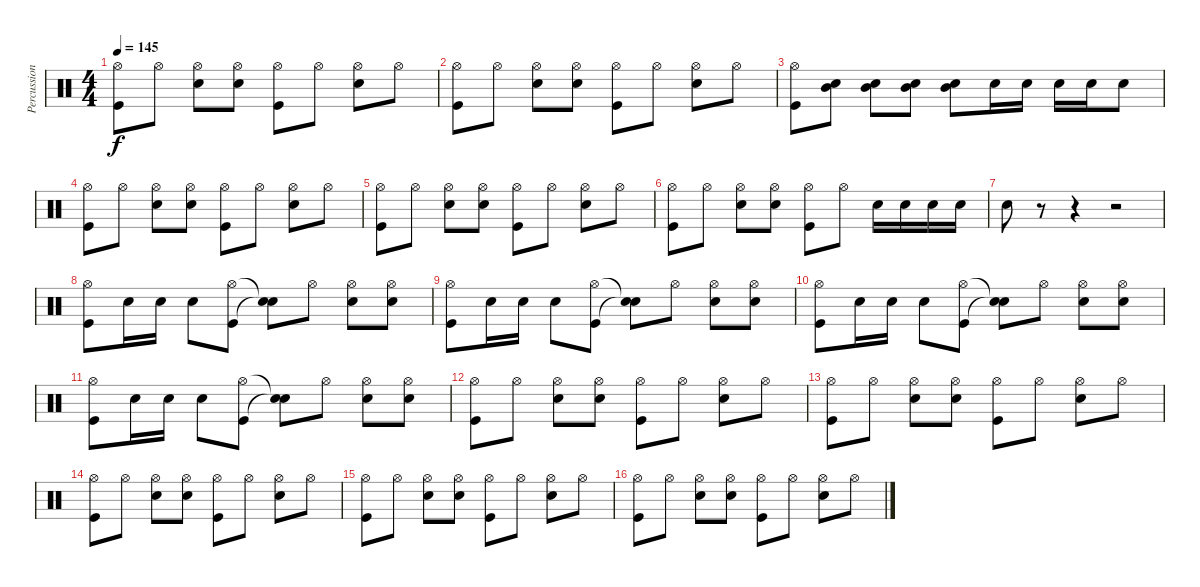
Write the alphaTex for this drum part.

\track ("Percussion" "Percussion") {instrument percussion}
\staff {score}
\articulation defaults
\ts (4 4)
\tempo 145
\clef neutral
\ks c
("Hi-Hat (open)" "Kick (hit)").8{dy f} "Hi-Hat (open)".8 ("Hi-Hat (open)" "Snare (hit) 2").8 ("Hi-Hat (open)" "Snare (hit) 2").8 ("Hi-Hat (open)" "Kick (hit)").8 "Hi-Hat (open)".8 ("Hi-Hat (open)" "Snare (hit) 2").8 "Hi-Hat (open)".8 |
("Hi-Hat (open)" "Kick (hit)").8 "Hi-Hat (open)".8 ("Hi-Hat (open)" "Snare (hit) 2").8 ("Hi-Hat (open)" "Snare (hit) 2").8 ("Hi-Hat (open)" "Kick (hit)").8 "Hi-Hat (open)".8 ("Hi-Hat (open)" "Snare (hit) 2").8 "Hi-Hat (open)".8 |
("Hi-Hat (open)" "Kick (hit)").8 ("Snare (hit) 2" "Mid Tom (hit)").8 ("Snare (hit) 2" "Mid Tom (hit)").8 ("Snare (hit) 2" "Mid Tom (hit)").8 ("Snare (hit) 2" "Mid Tom (hit)").8 "Snare (hit) 2".16 "Snare (hit) 2".16 "Snare (hit) 2".16 "Snare (hit) 2".16 "Snare (hit) 2".8 |
("Hi-Hat (open)" "Kick (hit)").8 "Hi-Hat (open)".8 ("Hi-Hat (open)" "Snare (hit) 2").8 ("Hi-Hat (open)" "Snare (hit) 2").8 ("Hi-Hat (open)" "Kick (hit)").8 "Hi-Hat (open)".8 ("Hi-Hat (open)" "Snare (hit) 2").8 "Hi-Hat (open)".8 |
("Hi-Hat (open)" "Kick (hit)").8 "Hi-Hat (open)".8 ("Hi-Hat (open)" "Snare (hit) 2").8 ("Hi-Hat (open)" "Snare (hit) 2").8 ("Hi-Hat (open)" "Kick (hit)").8 "Hi-Hat (open)".8 ("Hi-Hat (open)" "Snare (hit) 2").8 "Hi-Hat (open)".8 |
("Hi-Hat (open)" "Kick (hit)").8 "Hi-Hat (open)".8 ("Hi-Hat (open)" "Snare (hit) 2").8 ("Hi-Hat (open)" "Snare (hit) 2").8 ("Hi-Hat (open)" "Kick (hit)").8 "Hi-Hat (open)".8 "Snare (hit) 2".16 "Snare (hit) 2".16 "Snare (hit) 2".16 "Snare (hit) 2".16 |
"Snare (hit) 2".8 r.8 r.4 r.2 |
("Hi-Hat (open)" "Kick (hit)").8 "Snare (hit) 2".16 "Snare (hit) 2".16 "Snare (hit) 2".8 ("Hi-Hat (open)" "Kick (hit)").8 ("Snare (hit)"{t} "Snare (hit)"{t}).8 "Hi-Hat (open)".8 ("Hi-Hat (open)" "Snare (hit) 2").8 ("Hi-Hat (open)" "Snare (hit) 2").8 |
("Hi-Hat (open)" "Kick (hit)").8 "Snare (hit) 2".16 "Snare (hit) 2".16 "Snare (hit) 2".8 ("Hi-Hat (open)" "Kick (hit)").8 ("Snare (hit)"{t} "Snare (hit)"{t}).8 "Hi-Hat (open)".8 ("Hi-Hat (open)" "Snare (hit) 2").8 ("Hi-Hat (open)" "Snare (hit) 2").8 |
("Hi-Hat (open)" "Kick (hit)").8 "Snare (hit) 2".16 "Snare (hit) 2".16 "Snare (hit) 2".8 ("Hi-Hat (open)" "Kick (hit)").8 ("Snare (hit)"{t} "Snare (hit)"{t}).8 "Hi-Hat (open)".8 ("Hi-Hat (open)" "Snare (hit) 2").8 ("Hi-Hat (open)" "Snare (hit) 2").8 |
("Hi-Hat (open)" "Kick (hit)").8 "Snare (hit) 2".16 "Snare (hit) 2".16 "Snare (hit) 2".8 ("Hi-Hat (open)" "Kick (hit)").8 ("Snare (hit)"{t} "Snare (hit)"{t}).8 "Hi-Hat (open)".8 ("Hi-Hat (open)" "Snare (hit) 2").8 ("Hi-Hat (open)" "Snare (hit) 2").8 |
("Hi-Hat (open)" "Kick (hit)").8 "Hi-Hat (open)".8 ("Hi-Hat (open)" "Snare (hit) 2").8 ("Hi-Hat (open)" "Snare (hit) 2").8 ("Hi-Hat (open)" "Kick (hit)").8 "Hi-Hat (open)".8 ("Hi-Hat (open)" "Snare (hit) 2").8 "Hi-Hat (open)".8 |
("Hi-Hat (open)" "Kick (hit)").8 "Hi-Hat (open)".8 ("Hi-Hat (open)" "Snare (hit) 2").8 ("Hi-Hat (open)" "Snare (hit) 2").8 ("Hi-Hat (open)" "Kick (hit)").8 "Hi-Hat (open)".8 ("Hi-Hat (open)" "Snare (hit) 2").8 "Hi-Hat (open)".8 |
("Hi-Hat (open)" "Kick (hit)").8 "Hi-Hat (open)".8 ("Hi-Hat (open)" "Snare (hit) 2").8 ("Hi-Hat (open)" "Snare (hit) 2").8 ("Hi-Hat (open)" "Kick (hit)").8 "Hi-Hat (open)".8 ("Hi-Hat (open)" "Snare (hit) 2").8 "Hi-Hat (open)".8 |
("Hi-Hat (open)" "Kick (hit)").8 "Hi-Hat (open)".8 ("Hi-Hat (open)" "Snare (hit) 2").8 ("Hi-Hat (open)" "Snare (hit) 2").8 ("Hi-Hat (open)" "Kick (hit)").8 "Hi-Hat (open)".8 ("Hi-Hat (open)" "Snare (hit) 2").8 "Hi-Hat (open)".8 |
("Hi-Hat (open)" "Kick (hit)").8 "Hi-Hat (open)".8 ("Hi-Hat (open)" "Snare (hit) 2").8 ("Hi-Hat (open)" "Snare (hit) 2").8 ("Hi-Hat (open)" "Kick (hit)").8 "Hi-Hat (open)".8 ("Hi-Hat (open)" "Snare (hit) 2").8 "Hi-Hat (open)".8
